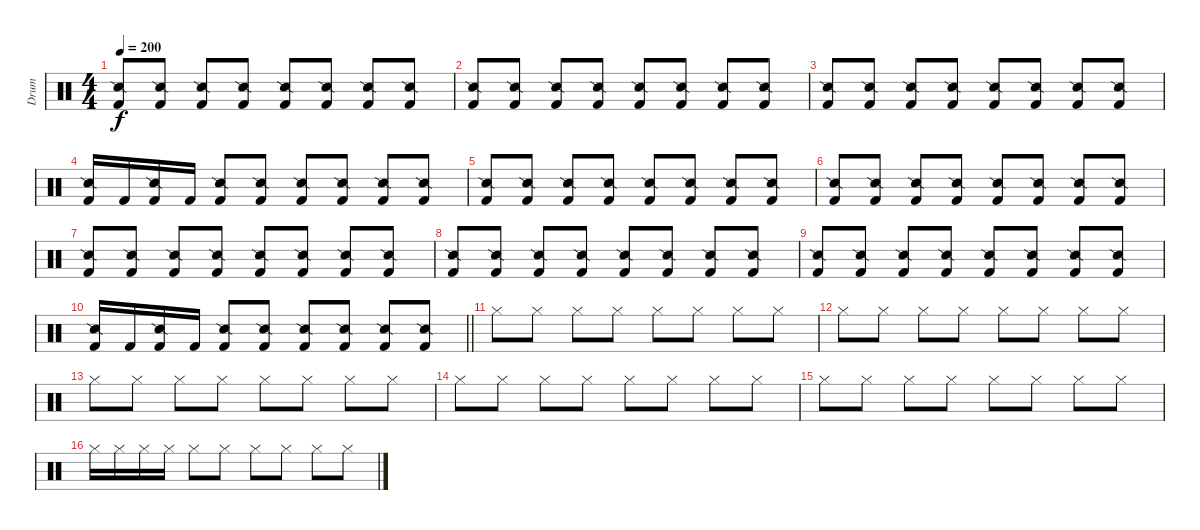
\track ("Drum" "Drum") {instrument percussion}
\staff {score}
\articulation defaults
\ts (4 4)
\tempo 200
\clef neutral
\ks c
("Snare (side stick) 2" "Kick (hit) 2").8{dy f} ("Snare (side stick) 2" "Kick (hit) 2").8 ("Snare (side stick) 2" "Kick (hit) 2").8 ("Snare (side stick) 2" "Kick (hit) 2").8 ("Snare (side stick) 2" "Kick (hit) 2").8 ("Snare (side stick) 2" "Kick (hit) 2").8 ("Snare (side stick) 2" "Kick (hit) 2").8 ("Snare (side stick) 2" "Kick (hit) 2").8 |
("Snare (side stick) 2" "Kick (hit) 2").8 ("Snare (side stick) 2" "Kick (hit) 2").8 ("Snare (side stick) 2" "Kick (hit) 2").8 ("Snare (side stick) 2" "Kick (hit) 2").8 ("Snare (side stick) 2" "Kick (hit) 2").8 ("Snare (side stick) 2" "Kick (hit) 2").8 ("Snare (side stick) 2" "Kick (hit) 2").8 ("Snare (side stick) 2" "Kick (hit) 2").8 |
("Snare (side stick) 2" "Kick (hit) 2").8 ("Snare (side stick) 2" "Kick (hit) 2").8 ("Snare (side stick) 2" "Kick (hit) 2").8 ("Snare (side stick) 2" "Kick (hit) 2").8 ("Snare (side stick) 2" "Kick (hit) 2").8 ("Snare (side stick) 2" "Kick (hit) 2").8 ("Snare (side stick) 2" "Kick (hit) 2").8 ("Snare (side stick) 2" "Kick (hit) 2").8 |
("Snare (side stick) 2" "Kick (hit) 2").16 "Kick (hit) 2".16 ("Snare (side stick) 2" "Kick (hit) 2").16 "Kick (hit) 2".16 ("Snare (side stick) 2" "Kick (hit) 2").8 ("Snare (side stick) 2" "Kick (hit) 2").8 ("Snare (side stick) 2" "Kick (hit) 2").8 ("Snare (side stick) 2" "Kick (hit) 2").8 ("Snare (side stick) 2" "Kick (hit) 2").8 ("Snare (side stick) 2" "Kick (hit) 2").8 |
("Snare (side stick) 2" "Kick (hit) 2").8 ("Snare (side stick) 2" "Kick (hit) 2").8 ("Snare (side stick) 2" "Kick (hit) 2").8 ("Snare (side stick) 2" "Kick (hit) 2").8 ("Snare (side stick) 2" "Kick (hit) 2").8 ("Snare (side stick) 2" "Kick (hit) 2").8 ("Snare (side stick) 2" "Kick (hit) 2").8 ("Snare (side stick) 2" "Kick (hit) 2").8 |
("Snare (side stick) 2" "Kick (hit) 2").8 ("Snare (side stick) 2" "Kick (hit) 2").8 ("Snare (side stick) 2" "Kick (hit) 2").8 ("Snare (side stick) 2" "Kick (hit) 2").8 ("Snare (side stick) 2" "Kick (hit) 2").8 ("Snare (side stick) 2" "Kick (hit) 2").8 ("Snare (side stick) 2" "Kick (hit) 2").8 ("Snare (side stick) 2" "Kick (hit) 2").8 |
("Snare (side stick) 2" "Kick (hit) 2").8 ("Snare (side stick) 2" "Kick (hit) 2").8 ("Snare (side stick) 2" "Kick (hit) 2").8 ("Snare (side stick) 2" "Kick (hit) 2").8 ("Snare (side stick) 2" "Kick (hit) 2").8 ("Snare (side stick) 2" "Kick (hit) 2").8 ("Snare (side stick) 2" "Kick (hit) 2").8 ("Snare (side stick) 2" "Kick (hit) 2").8 |
("Snare (side stick) 2" "Kick (hit) 2").8 ("Snare (side stick) 2" "Kick (hit) 2").8 ("Snare (side stick) 2" "Kick (hit) 2").8 ("Snare (side stick) 2" "Kick (hit) 2").8 ("Snare (side stick) 2" "Kick (hit) 2").8 ("Snare (side stick) 2" "Kick (hit) 2").8 ("Snare (side stick) 2" "Kick (hit) 2").8 ("Snare (side stick) 2" "Kick (hit) 2").8 |
("Snare (side stick) 2" "Kick (hit) 2").8 ("Snare (side stick) 2" "Kick (hit) 2").8 ("Snare (side stick) 2" "Kick (hit) 2").8 ("Snare (side stick) 2" "Kick (hit) 2").8 ("Snare (side stick) 2" "Kick (hit) 2").8 ("Snare (side stick) 2" "Kick (hit) 2").8 ("Snare (side stick) 2" "Kick (hit) 2").8 ("Snare (side stick) 2" "Kick (hit) 2").8 |
\barLineRight lightlight
("Snare (side stick) 2" "Kick (hit) 2").16 "Kick (hit) 2".16 ("Snare (side stick) 2" "Kick (hit) 2").16 "Kick (hit) 2".16 ("Snare (side stick) 2" "Kick (hit) 2").8 ("Snare (side stick) 2" "Kick (hit) 2").8 ("Snare (side stick) 2" "Kick (hit) 2").8 ("Snare (side stick) 2" "Kick (hit) 2").8 ("Snare (side stick) 2" "Kick (hit) 2").8 ("Snare (side stick) 2" "Kick (hit) 2").8 |
\section ("" " ")
"Hi-Hat (closed)".8 "Hi-Hat (closed)".8 "Hi-Hat (closed)".8 "Hi-Hat (closed)".8 "Hi-Hat (closed)".8 "Hi-Hat (closed)".8 "Hi-Hat (closed)".8 "Hi-Hat (closed)".8 |
"Hi-Hat (closed)".8 "Hi-Hat (closed)".8 "Hi-Hat (closed)".8 "Hi-Hat (closed)".8 "Hi-Hat (closed)".8 "Hi-Hat (closed)".8 "Hi-Hat (closed)".8 "Hi-Hat (closed)".8 |
"Hi-Hat (closed)".8 "Hi-Hat (closed)".8 "Hi-Hat (closed)".8 "Hi-Hat (closed)".8 "Hi-Hat (closed)".8 "Hi-Hat (closed)".8 "Hi-Hat (closed)".8 "Hi-Hat (closed)".8 |
"Hi-Hat (closed)".8 "Hi-Hat (closed)".8 "Hi-Hat (closed)".8 "Hi-Hat (closed)".8 "Hi-Hat (closed)".8 "Hi-Hat (closed)".8 "Hi-Hat (closed)".8 "Hi-Hat (closed)".8 |
"Hi-Hat (closed)".8 "Hi-Hat (closed)".8 "Hi-Hat (closed)".8 "Hi-Hat (closed)".8 "Hi-Hat (closed)".8 "Hi-Hat (closed)".8 "Hi-Hat (closed)".8 "Hi-Hat (closed)".8 |
"Hi-Hat (closed)".16 "Hi-Hat (closed)".16 "Hi-Hat (closed)".16 "Hi-Hat (closed)".16 "Hi-Hat (closed)".8 "Hi-Hat (closed)".8 "Hi-Hat (closed)".8 "Hi-Hat (closed)".8 "Hi-Hat (closed)".8 "Hi-Hat (closed)".8
